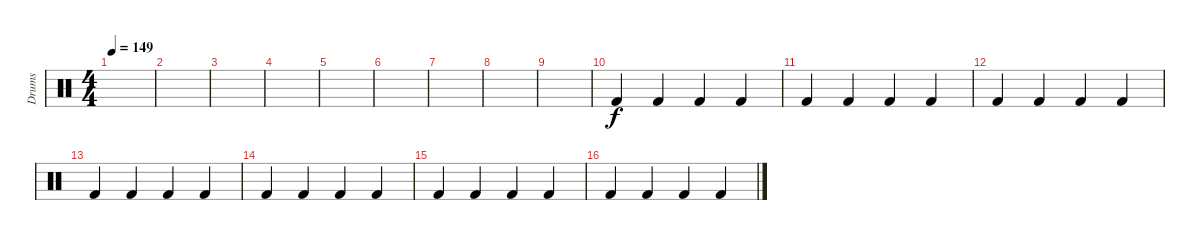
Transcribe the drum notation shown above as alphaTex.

\track ("Drums" "Drums") {instrument percussion}
\staff {score}
\articulation defaults
\ts (4 4)
\tempo 149
\clef neutral
\ks c
|
|
|
|
|
|
|
|
|
"Kick (hit) 2".4 "Kick (hit) 2".4 "Kick (hit) 2".4 "Kick (hit) 2".4 |
"Kick (hit) 2".4 "Kick (hit) 2".4 "Kick (hit) 2".4 "Kick (hit) 2".4 |
"Kick (hit) 2".4 "Kick (hit) 2".4 "Kick (hit) 2".4 "Kick (hit) 2".4 |
"Kick (hit) 2".4 "Kick (hit) 2".4 "Kick (hit) 2".4 "Kick (hit) 2".4 |
"Kick (hit) 2".4 "Kick (hit) 2".4 "Kick (hit) 2".4 "Kick (hit) 2".4 |
"Kick (hit) 2".4 "Kick (hit) 2".4 "Kick (hit) 2".4 "Kick (hit) 2".4 |
"Kick (hit) 2".4 "Kick (hit) 2".4 "Kick (hit) 2".4 "Kick (hit) 2".4
